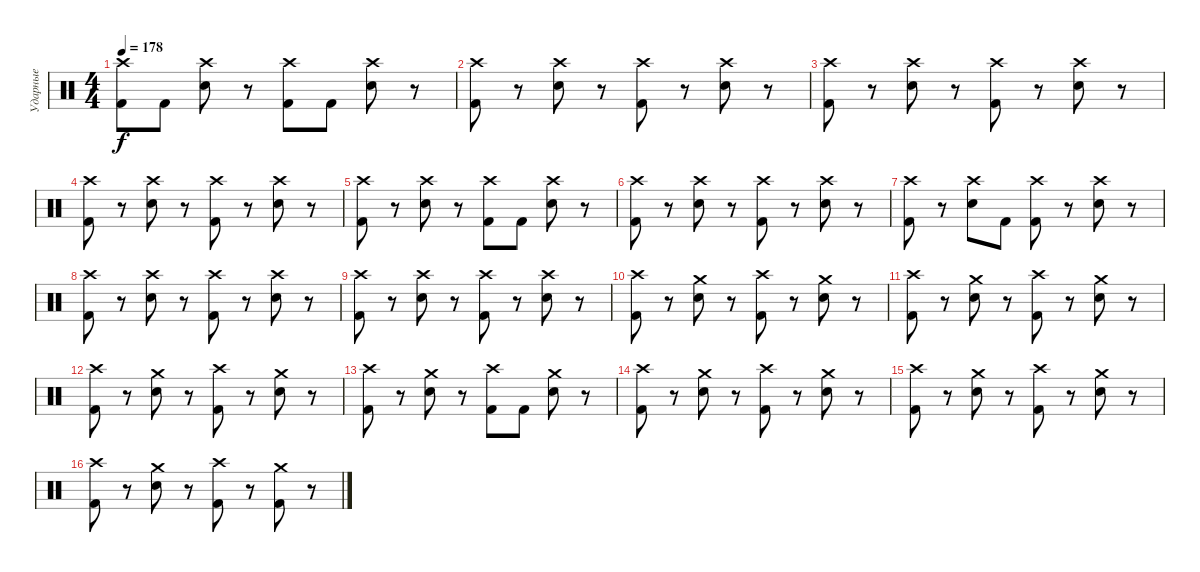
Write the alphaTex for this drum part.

\track ("Ударные" "Ударные") {instrument percussion}
\staff {score}
\articulation defaults
\ts (4 4)
\tempo 178
\clef neutral
\ks c
("Crash high (hit)" "Kick (hit) 2").8{dy f} "Kick (hit) 2".8 ("Crash high (hit)" "Snare (hit) 2").8 r.8 ("Crash high (hit)" "Kick (hit) 2").8 "Kick (hit) 2".8 ("Crash high (hit)" "Snare (hit) 2").8 r.8 |
("Crash high (hit)" "Kick (hit) 2").8 r.8 ("Crash high (hit)" "Snare (hit) 2").8 r.8 ("Crash high (hit)" "Kick (hit) 2").8 r.8 ("Crash high (hit)" "Snare (hit) 2").8 r.8 |
("Crash high (hit)" "Kick (hit) 2").8 r.8 ("Crash high (hit)" "Snare (hit) 2").8 r.8 ("Crash high (hit)" "Kick (hit) 2").8 r.8 ("Crash high (hit)" "Snare (hit) 2").8 r.8 |
("Crash high (hit)" "Kick (hit) 2").8 r.8 ("Crash high (hit)" "Snare (hit) 2").8 r.8 ("Crash high (hit)" "Kick (hit) 2").8 r.8 ("Crash high (hit)" "Snare (hit) 2").8 r.8 |
("Crash high (hit)" "Kick (hit) 2").8 r.8 ("Crash high (hit)" "Snare (hit) 2").8 r.8 ("Crash high (hit)" "Kick (hit) 2").8 "Kick (hit) 2".8 ("Crash high (hit)" "Snare (hit) 2").8 r.8 |
("Crash high (hit)" "Kick (hit) 2").8 r.8 ("Crash high (hit)" "Snare (hit) 2").8 r.8 ("Crash high (hit)" "Kick (hit) 2").8 r.8 ("Crash high (hit)" "Snare (hit) 2").8 r.8 |
("Crash high (hit)" "Kick (hit) 2").8 r.8 ("Crash high (hit)" "Snare (hit) 2").8 "Kick (hit) 2".8 ("Crash high (hit)" "Kick (hit) 2").8 r.8 ("Crash high (hit)" "Snare (hit) 2").8 r.8 |
("Crash high (hit)" "Kick (hit) 2").8 r.8 ("Crash high (hit)" "Snare (hit) 2").8 r.8 ("Crash high (hit)" "Kick (hit) 2").8 r.8 ("Crash high (hit)" "Snare (hit) 2").8 r.8 |
("Crash high (hit)" "Kick (hit) 2").8 r.8 ("Crash high (hit)" "Snare (hit) 2").8 r.8 ("Crash high (hit)" "Kick (hit) 2").8 r.8 ("Crash high (hit)" "Snare (hit) 2").8 r.8 |
("Crash high (hit)" "Kick (hit) 2").8 r.8 ("Crash medium (hit)" "Snare (hit) 2").8 r.8 ("Crash high (hit)" "Kick (hit) 2").8 r.8 ("Crash medium (hit)" "Snare (hit) 2").8 r.8 |
("Crash high (hit)" "Kick (hit) 2").8 r.8 ("Crash medium (hit)" "Snare (hit) 2").8 r.8 ("Crash high (hit)" "Kick (hit) 2").8 r.8 ("Crash medium (hit)" "Snare (hit) 2").8 r.8 |
("Crash high (hit)" "Kick (hit) 2").8 r.8 ("Crash medium (hit)" "Snare (hit) 2").8 r.8 ("Crash high (hit)" "Kick (hit) 2").8 r.8 ("Crash medium (hit)" "Snare (hit) 2").8 r.8 |
("Crash high (hit)" "Kick (hit) 2").8 r.8 ("Crash medium (hit)" "Snare (hit) 2").8 r.8 ("Crash high (hit)" "Kick (hit) 2").8 "Kick (hit) 2".8 ("Crash medium (hit)" "Snare (hit) 2").8 r.8 |
("Crash high (hit)" "Kick (hit) 2").8 r.8 ("Crash medium (hit)" "Snare (hit) 2").8 r.8 ("Crash high (hit)" "Kick (hit) 2").8 r.8 ("Crash medium (hit)" "Snare (hit) 2").8 r.8 |
("Crash high (hit)" "Kick (hit) 2").8 r.8 ("Crash medium (hit)" "Snare (hit) 2").8 r.8 ("Crash high (hit)" "Kick (hit) 2").8 r.8 ("Crash medium (hit)" "Snare (hit) 2").8 r.8 |
("Crash high (hit)" "Kick (hit) 2").8 r.8 ("Crash medium (hit)" "Snare (hit) 2").8 r.8 ("Crash high (hit)" "Kick (hit) 2").8 r.8 ("Crash medium (hit)" "Kick (hit) 2").8 r.8
